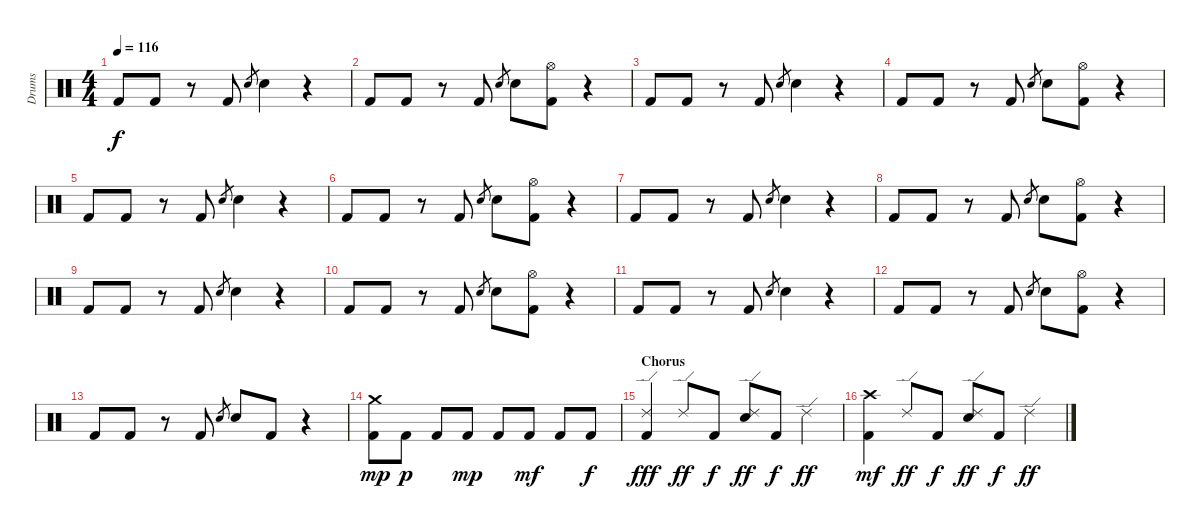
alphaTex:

\track ("Drums" "Drums") {instrument percussion}
\staff {score}
\articulation defaults
\ts (4 4)
\tempo 116
\clef neutral
\ks c "Kick (hit) 2".8{dy f} "Kick (hit) 2".8
r.8 "Kick (hit) 2".8 "Snare (hit) 2".8{gr} "Snare (hit) 2".4 r.4 |
"Kick (hit) 2".8 "Kick (hit) 2".8 r.8 "Kick (hit) 2".8 "Snare (hit) 2".8{gr} "Snare (hit) 2".8 ("Hi-Hat (open)" "Kick (hit) 2").8 r.4 |
"Kick (hit) 2".8 "Kick (hit) 2".8 r.8 "Kick (hit) 2".8 "Snare (hit) 2".8{gr} "Snare (hit) 2".4 r.4 |
"Kick (hit) 2".8 "Kick (hit) 2".8 r.8 "Kick (hit) 2".8 "Snare (hit) 2".8{gr} "Snare (hit) 2".8 ("Hi-Hat (open)" "Kick (hit) 2").8 r.4 |
"Kick (hit) 2".8 "Kick (hit) 2".8 r.8 "Kick (hit) 2".8 "Snare (hit) 2".8{gr} "Snare (hit) 2".4 r.4 |
"Kick (hit) 2".8 "Kick (hit) 2".8 r.8 "Kick (hit) 2".8 "Snare (hit) 2".8{gr} "Snare (hit) 2".8 ("Hi-Hat (open)" "Kick (hit) 2").8 r.4 |
"Kick (hit) 2".8 "Kick (hit) 2".8 r.8 "Kick (hit) 2".8 "Snare (hit) 2".8{gr} "Snare (hit) 2".4 r.4 |
"Kick (hit) 2".8 "Kick (hit) 2".8 r.8 "Kick (hit) 2".8 "Snare (hit) 2".8{gr} "Snare (hit) 2".8 ("Hi-Hat (open)" "Kick (hit) 2").8 r.4 |
"Kick (hit) 2".8 "Kick (hit) 2".8 r.8 "Kick (hit) 2".8 "Snare (hit) 2".8{gr} "Snare (hit) 2".4 r.4 |
"Kick (hit) 2".8 "Kick (hit) 2".8 r.8 "Kick (hit) 2".8 "Snare (hit) 2".8{gr} "Snare (hit) 2".8 ("Hi-Hat (open)" "Kick (hit) 2").8 r.4 |
"Kick (hit) 2".8 "Kick (hit) 2".8 r.8 "Kick (hit) 2".8 "Snare (hit) 2".8{gr} "Snare (hit) 2".4 r.4 |
"Kick (hit) 2".8 "Kick (hit) 2".8 r.8 "Kick (hit) 2".8 "Snare (hit) 2".8{gr} "Snare (hit) 2".8 ("Hi-Hat (open)" "Kick (hit) 2").8 r.4 |
"Kick (hit) 2".8 "Kick (hit) 2".8 r.8 "Kick (hit) 2".8 "Snare (hit) 2".8{gr} "Snare (hit) 2".8 "Kick (hit) 2".8 r.4 |
("Crash medium (hit)" "Kick (hit) 2").8{dy mp} "Kick (hit) 2".8{dy p} "Kick (hit) 2".8 "Kick (hit) 2".8{dy mp} "Kick (hit) 2".8 "Kick (hit) 2".8{dy mf} "Kick (hit) 2".8 "Kick (hit) 2".8{dy f} |
\section ("" "Chorus")
("Ride (edge) 2" "Kick (hit) 2").4{dy fff} "Ride (edge) 2".8{dy ff} "Kick (hit) 2".8{dy f} ("Ride (edge) 2" "Snare (hit) 2").8{dy ff} "Kick (hit) 2".8{dy f} "Ride (edge) 2".4{dy ff} |
("Crash high (hit)" "Kick (hit) 2").4{dy mf} "Ride (edge) 2".8{dy ff} "Kick (hit) 2".8{dy f} ("Ride (edge) 2" "Snare (hit) 2").8{dy ff} "Kick (hit) 2".8{dy f} "Ride (edge) 2".4{dy ff}
